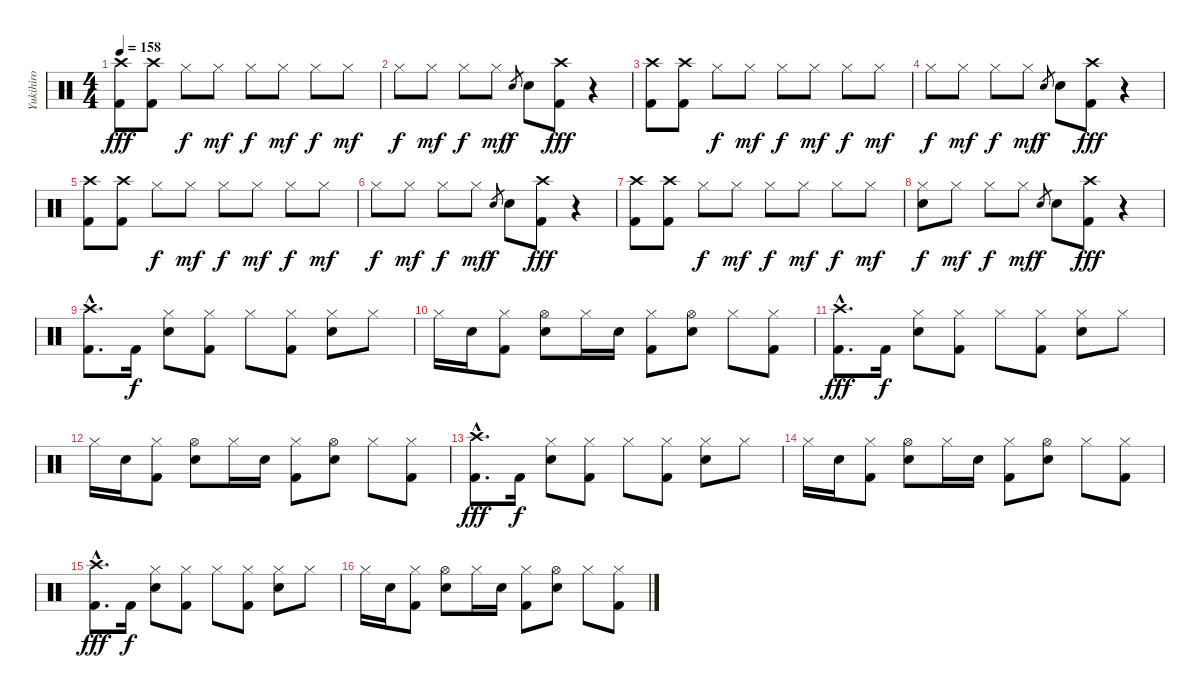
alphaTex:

\track ("Yukihiro" "Yukihiro") {instrument percussion}
\staff {score}
\articulation defaults
\ts (4 4)
\tempo 158
\clef neutral
\ks c
("Crash high (hit)" "Kick (hit) 2").8{dy fff} ("Crash high (hit)" "Kick (hit) 2").8 "Hi-Hat (closed)".8{dy f} "Hi-Hat (closed)".8{dy mf} "Hi-Hat (closed)".8{dy f} "Hi-Hat (closed)".8{dy mf} "Hi-Hat (closed)".8{dy f} "Hi-Hat (closed)".8{dy mf} |
"Hi-Hat (closed)".8{dy f} "Hi-Hat (closed)".8{dy mf} "Hi-Hat (closed)".8{dy f} "Hi-Hat (closed)".8{dy mf} "Snare (hit) 2".8{gr dy f} "Snare (hit) 2".8 ("Crash high (hit)" "Kick (hit) 2").8{dy fff} r.4 |
("Crash high (hit)" "Kick (hit) 2").8 ("Crash high (hit)" "Kick (hit) 2").8 "Hi-Hat (closed)".8{dy f} "Hi-Hat (closed)".8{dy mf} "Hi-Hat (closed)".8{dy f} "Hi-Hat (closed)".8{dy mf} "Hi-Hat (closed)".8{dy f} "Hi-Hat (closed)".8{dy mf} |
"Hi-Hat (closed)".8{dy f} "Hi-Hat (closed)".8{dy mf} "Hi-Hat (closed)".8{dy f} "Hi-Hat (closed)".8{dy mf} "Snare (hit) 2".8{gr dy f} "Snare (hit) 2".8 ("Crash high (hit)" "Kick (hit) 2").8{dy fff} r.4 |
("Crash high (hit)" "Kick (hit) 2").8 ("Crash high (hit)" "Kick (hit) 2").8 "Hi-Hat (closed)".8{dy f} "Hi-Hat (closed)".8{dy mf} "Hi-Hat (closed)".8{dy f} "Hi-Hat (closed)".8{dy mf} "Hi-Hat (closed)".8{dy f} "Hi-Hat (closed)".8{dy mf} |
"Hi-Hat (closed)".8{dy f} "Hi-Hat (closed)".8{dy mf} "Hi-Hat (closed)".8{dy f} "Hi-Hat (closed)".8{dy mf} "Snare (hit) 2".8{gr dy f} "Snare (hit) 2".8 ("Crash high (hit)" "Kick (hit) 2").8{dy fff} r.4 |
("Crash high (hit)" "Kick (hit) 2").8 ("Crash high (hit)" "Kick (hit) 2").8 "Hi-Hat (closed)".8{dy f} "Hi-Hat (closed)".8{dy mf} "Hi-Hat (closed)".8{dy f} "Hi-Hat (closed)".8{dy mf} "Hi-Hat (closed)".8{dy f} "Hi-Hat (closed)".8{dy mf} |
("Hi-Hat (closed)" "Snare (hit) 2").8{dy f} "Hi-Hat (closed)".8{dy mf} "Hi-Hat (closed)".8{dy f} "Hi-Hat (closed)".8{dy mf} "Snare (hit) 2".8{gr dy f} "Snare (hit) 2".8 ("Crash high (hit)" "Kick (hit) 2").8{dy fff} r.4 |
("Crash high (hit)"{hac} "Kick (hit) 2"{hac}).8{d} "Kick (hit) 2".16{dy f} ("Hi-Hat (closed)" "Snare (hit) 2").8 ("Hi-Hat (closed)" "Kick (hit) 2").8 "Hi-Hat (closed)".8 ("Hi-Hat (closed)" "Kick (hit) 2").8 ("Hi-Hat (closed)" "Snare (hit) 2").8 "Hi-Hat (closed)".8 |
"Hi-Hat (closed)".16 "Snare (hit) 2".16 ("Hi-Hat (closed)" "Kick (hit) 2").8 ("Hi-Hat (open)" "Snare (hit) 2").8 "Hi-Hat (closed)".16 "Snare (hit) 2".16 ("Hi-Hat (closed)" "Kick (hit) 2").8 ("Hi-Hat (open)" "Snare (hit) 2").8 "Hi-Hat (closed)".8 ("Hi-Hat (closed)" "Kick (hit) 2").8 |
("Crash high (hit)"{hac} "Kick (hit) 2"{hac}).8{d dy fff} "Kick (hit) 2".16{dy f} ("Hi-Hat (closed)" "Snare (hit) 2").8 ("Hi-Hat (closed)" "Kick (hit) 2").8 "Hi-Hat (closed)".8 ("Hi-Hat (closed)" "Kick (hit) 2").8 ("Hi-Hat (closed)" "Snare (hit) 2").8 "Hi-Hat (closed)".8 |
"Hi-Hat (closed)".16 "Snare (hit) 2".16 ("Hi-Hat (closed)" "Kick (hit) 2").8 ("Hi-Hat (open)" "Snare (hit) 2").8 "Hi-Hat (closed)".16 "Snare (hit) 2".16 ("Hi-Hat (closed)" "Kick (hit) 2").8 ("Hi-Hat (open)" "Snare (hit) 2").8 "Hi-Hat (closed)".8 ("Hi-Hat (closed)" "Kick (hit) 2").8 |
("Crash high (hit)"{hac} "Kick (hit) 2"{hac}).8{d dy fff} "Kick (hit) 2".16{dy f} ("Hi-Hat (closed)" "Snare (hit) 2").8 ("Hi-Hat (closed)" "Kick (hit) 2").8 "Hi-Hat (closed)".8 ("Hi-Hat (closed)" "Kick (hit) 2").8 ("Hi-Hat (closed)" "Snare (hit) 2").8 "Hi-Hat (closed)".8 |
"Hi-Hat (closed)".16 "Snare (hit) 2".16 ("Hi-Hat (closed)" "Kick (hit) 2").8 ("Hi-Hat (open)" "Snare (hit) 2").8 "Hi-Hat (closed)".16 "Snare (hit) 2".16 ("Hi-Hat (closed)" "Kick (hit) 2").8 ("Hi-Hat (open)" "Snare (hit) 2").8 "Hi-Hat (closed)".8 ("Hi-Hat (closed)" "Kick (hit) 2").8 |
("Crash high (hit)"{hac} "Kick (hit) 2"{hac}).8{d dy fff} "Kick (hit) 2".16{dy f} ("Hi-Hat (closed)" "Snare (hit) 2").8 ("Hi-Hat (closed)" "Kick (hit) 2").8 "Hi-Hat (closed)".8 ("Hi-Hat (closed)" "Kick (hit) 2").8 ("Hi-Hat (closed)" "Snare (hit) 2").8 "Hi-Hat (closed)".8 |
"Hi-Hat (closed)".16 "Snare (hit) 2".16 ("Hi-Hat (closed)" "Kick (hit) 2").8 ("Hi-Hat (open)" "Snare (hit) 2").8 "Hi-Hat (closed)".16 "Snare (hit) 2".16 ("Hi-Hat (closed)" "Kick (hit) 2").8 ("Hi-Hat (open)" "Snare (hit) 2").8 "Hi-Hat (closed)".8 ("Hi-Hat (closed)" "Kick (hit) 2").8
